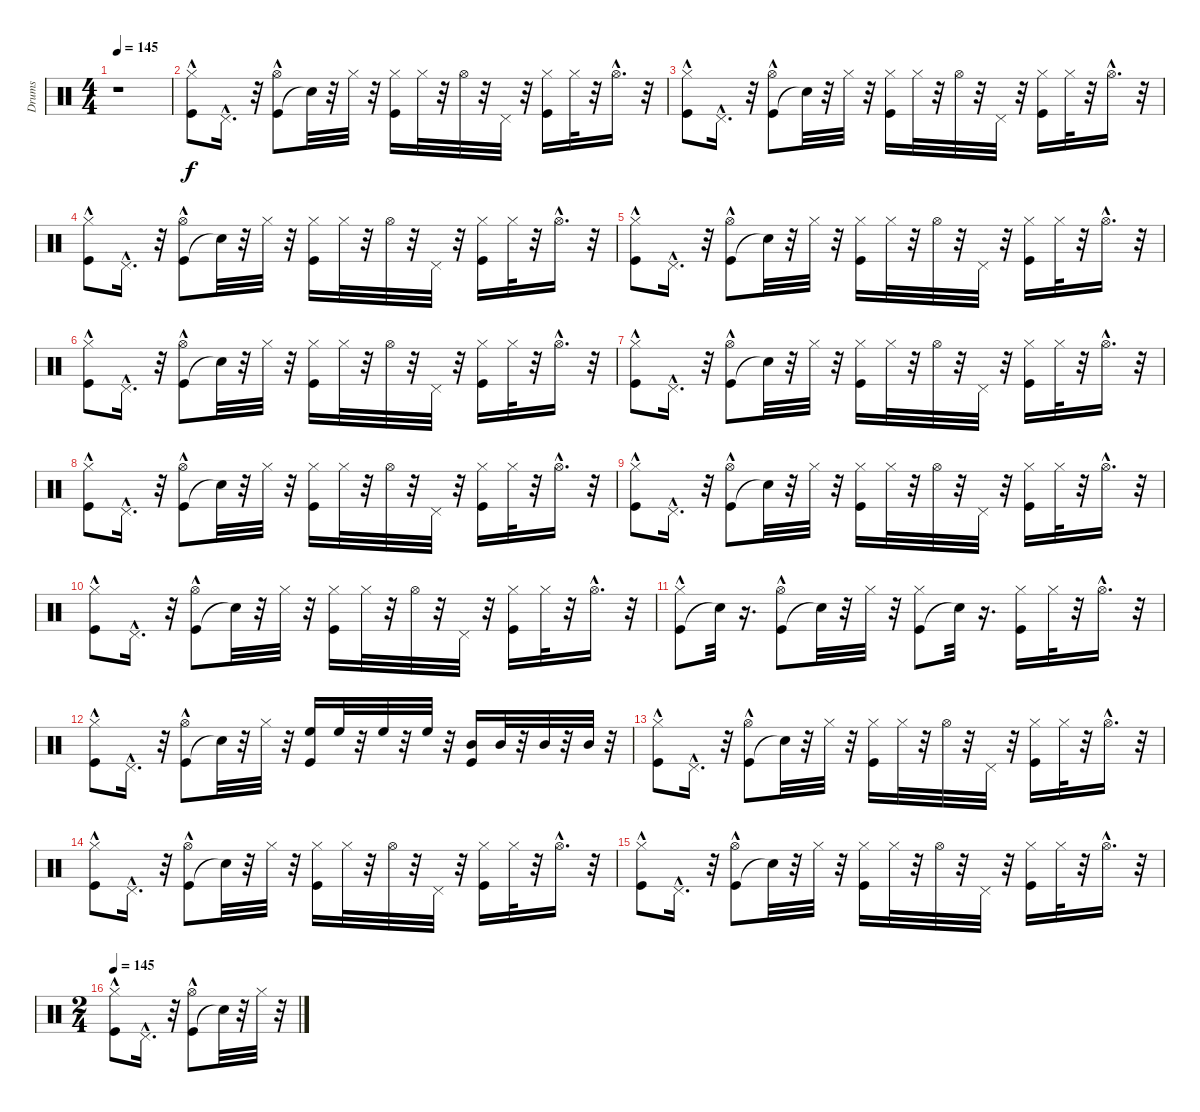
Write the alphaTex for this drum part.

\track ("Drums" "Drums") {instrument percussion}
\staff {score}
\articulation defaults
\ts (4 4)
\tempo 145
\clef neutral
\ks c
r.1{dy f} |
("Kick (hit)" "Hi-Hat (closed)"{hac}).8 "Pedal Hi-Hat (hit)"{hac}.16{d} r.32 ("Kick (hit)" "Hi-Hat (open)"{hac}).8 "Snare (hit)"{t}.32 r.32 "Hi-Hat (closed)".32 r.32 ("Kick (hit)" "Hi-Hat (closed)").16 "Hi-Hat (closed)".32 r.32 "Hi-Hat (open)".32 r.32 "Pedal Hi-Hat (hit)".32 r.32 ("Kick (hit)" "Hi-Hat (closed)").16 "Hi-Hat (closed)".32 r.32 "Hi-Hat (open)"{hac}.16{d} r.32 |
("Kick (hit)" "Hi-Hat (closed)"{hac}).8 "Pedal Hi-Hat (hit)"{hac}.16{d} r.32 ("Kick (hit)" "Hi-Hat (open)"{hac}).8 "Snare (hit)"{t}.32 r.32 "Hi-Hat (closed)".32 r.32 ("Kick (hit)" "Hi-Hat (closed)").16 "Hi-Hat (closed)".32 r.32 "Hi-Hat (open)".32 r.32 "Pedal Hi-Hat (hit)".32 r.32 ("Kick (hit)" "Hi-Hat (closed)").16 "Hi-Hat (closed)".32 r.32 "Hi-Hat (open)"{hac}.16{d} r.32 |
("Kick (hit)" "Hi-Hat (closed)"{hac}).8 "Pedal Hi-Hat (hit)"{hac}.16{d} r.32 ("Kick (hit)" "Hi-Hat (open)"{hac}).8 "Snare (hit)"{t}.32 r.32 "Hi-Hat (closed)".32 r.32 ("Kick (hit)" "Hi-Hat (closed)").16 "Hi-Hat (closed)".32 r.32 "Hi-Hat (open)".32 r.32 "Pedal Hi-Hat (hit)".32 r.32 ("Kick (hit)" "Hi-Hat (closed)").16 "Hi-Hat (closed)".32 r.32 "Hi-Hat (open)"{hac}.16{d} r.32 |
("Kick (hit)" "Hi-Hat (closed)"{hac}).8 "Pedal Hi-Hat (hit)"{hac}.16{d} r.32 ("Kick (hit)" "Hi-Hat (open)"{hac}).8 "Snare (hit)"{t}.32 r.32 "Hi-Hat (closed)".32 r.32 ("Kick (hit)" "Hi-Hat (closed)").16 "Hi-Hat (closed)".32 r.32 "Hi-Hat (open)".32 r.32 "Pedal Hi-Hat (hit)".32 r.32 ("Kick (hit)" "Hi-Hat (closed)").16 "Hi-Hat (closed)".32 r.32 "Hi-Hat (open)"{hac}.16{d} r.32 |
("Kick (hit)" "Hi-Hat (closed)"{hac}).8 "Pedal Hi-Hat (hit)"{hac}.16{d} r.32 ("Kick (hit)" "Hi-Hat (open)"{hac}).8 "Snare (hit)"{t}.32 r.32 "Hi-Hat (closed)".32 r.32 ("Kick (hit)" "Hi-Hat (closed)").16 "Hi-Hat (closed)".32 r.32 "Hi-Hat (open)".32 r.32 "Pedal Hi-Hat (hit)".32 r.32 ("Kick (hit)" "Hi-Hat (closed)").16 "Hi-Hat (closed)".32 r.32 "Hi-Hat (open)"{hac}.16{d} r.32 |
("Kick (hit)" "Hi-Hat (closed)"{hac}).8 "Pedal Hi-Hat (hit)"{hac}.16{d} r.32 ("Kick (hit)" "Hi-Hat (open)"{hac}).8 "Snare (hit)"{t}.32 r.32 "Hi-Hat (closed)".32 r.32 ("Kick (hit)" "Hi-Hat (closed)").16 "Hi-Hat (closed)".32 r.32 "Hi-Hat (open)".32 r.32 "Pedal Hi-Hat (hit)".32 r.32 ("Kick (hit)" "Hi-Hat (closed)").16 "Hi-Hat (closed)".32 r.32 "Hi-Hat (open)"{hac}.16{d} r.32 |
("Kick (hit)" "Hi-Hat (closed)"{hac}).8 "Pedal Hi-Hat (hit)"{hac}.16{d} r.32 ("Kick (hit)" "Hi-Hat (open)"{hac}).8 "Snare (hit)"{t}.32 r.32 "Hi-Hat (closed)".32 r.32 ("Kick (hit)" "Hi-Hat (closed)").16 "Hi-Hat (closed)".32 r.32 "Hi-Hat (open)".32 r.32 "Pedal Hi-Hat (hit)".32 r.32 ("Kick (hit)" "Hi-Hat (closed)").16 "Hi-Hat (closed)".32 r.32 "Hi-Hat (open)"{hac}.16{d} r.32 |
("Kick (hit)" "Hi-Hat (closed)"{hac}).8 "Pedal Hi-Hat (hit)"{hac}.16{d} r.32 ("Kick (hit)" "Hi-Hat (open)"{hac}).8 "Snare (hit)"{t}.32 r.32 "Hi-Hat (closed)".32 r.32 ("Kick (hit)" "Hi-Hat (closed)").16 "Hi-Hat (closed)".32 r.32 "Hi-Hat (open)".32 r.32 "Pedal Hi-Hat (hit)".32 r.32 ("Kick (hit)" "Hi-Hat (closed)").16 "Hi-Hat (closed)".32 r.32 "Hi-Hat (open)"{hac}.16{d} r.32 |
("Kick (hit)" "Hi-Hat (closed)"{hac}).8 "Pedal Hi-Hat (hit)"{hac}.16{d} r.32 ("Kick (hit)" "Hi-Hat (open)"{hac}).8 "Snare (hit)"{t}.32 r.32 "Hi-Hat (closed)".32 r.32 ("Kick (hit)" "Hi-Hat (closed)").16 "Hi-Hat (closed)".32 r.32 "Hi-Hat (open)".32 r.32 "Pedal Hi-Hat (hit)".32 r.32 ("Kick (hit)" "Hi-Hat (closed)").16 "Hi-Hat (closed)".32 r.32 "Hi-Hat (open)"{hac}.16{d} r.32 |
("Kick (hit)" "Hi-Hat (closed)"{hac}).8 "Snare (hit)"{t}.32 r.16{d} ("Kick (hit)" "Hi-Hat (open)"{hac}).8 "Snare (hit)"{t}.32 r.32 "Hi-Hat (closed)".32 r.32 ("Kick (hit)" "Hi-Hat (closed)").8 "Snare (hit)"{t}.32 r.16{d} ("Kick (hit)" "Hi-Hat (closed)").16 "Hi-Hat (closed)".32 r.32 "Hi-Hat (open)"{hac}.16{d} r.32 |
("Kick (hit)" "Hi-Hat (closed)"{hac}).8 "Pedal Hi-Hat (hit)"{hac}.16{d} r.32 ("Kick (hit)" "Hi-Hat (open)"{hac}).8 "Snare (hit)"{t}.32 r.32 "Hi-Hat (closed)".32 r.32 ("High Floor Tom (hit)" "Kick (hit)").16 "High Floor Tom (hit)".32 r.32 "High Floor Tom (hit)".32 r.32 "High Floor Tom (hit)".32 r.32 ("Mid Tom (hit)" "Kick (hit)").16 "Mid Tom (hit)".32 r.32 "Mid Tom (hit)".32 r.32 "Mid Tom (hit)".32 r.32 |
("Kick (hit)" "Hi-Hat (closed)"{hac}).8 "Pedal Hi-Hat (hit)"{hac}.16{d} r.32 ("Kick (hit)" "Hi-Hat (open)"{hac}).8 "Snare (hit)"{t}.32 r.32 "Hi-Hat (closed)".32 r.32 ("Kick (hit)" "Hi-Hat (closed)").16 "Hi-Hat (closed)".32 r.32 "Hi-Hat (open)".32 r.32 "Pedal Hi-Hat (hit)".32 r.32 ("Kick (hit)" "Hi-Hat (closed)").16 "Hi-Hat (closed)".32 r.32 "Hi-Hat (open)"{hac}.16{d} r.32 |
("Kick (hit)" "Hi-Hat (closed)"{hac}).8 "Pedal Hi-Hat (hit)"{hac}.16{d} r.32 ("Kick (hit)" "Hi-Hat (open)"{hac}).8 "Snare (hit)"{t}.32 r.32 "Hi-Hat (closed)".32 r.32 ("Kick (hit)" "Hi-Hat (closed)").16 "Hi-Hat (closed)".32 r.32 "Hi-Hat (open)".32 r.32 "Pedal Hi-Hat (hit)".32 r.32 ("Kick (hit)" "Hi-Hat (closed)").16 "Hi-Hat (closed)".32 r.32 "Hi-Hat (open)"{hac}.16{d} r.32 |
("Kick (hit)" "Hi-Hat (closed)"{hac}).8 "Pedal Hi-Hat (hit)"{hac}.16{d} r.32 ("Kick (hit)" "Hi-Hat (open)"{hac}).8 "Snare (hit)"{t}.32 r.32 "Hi-Hat (closed)".32 r.32 ("Kick (hit)" "Hi-Hat (closed)").16 "Hi-Hat (closed)".32 r.32 "Hi-Hat (open)".32 r.32 "Pedal Hi-Hat (hit)".32 r.32 ("Kick (hit)" "Hi-Hat (closed)").16 "Hi-Hat (closed)".32 r.32 "Hi-Hat (open)"{hac}.16{d} r.32 |
\ts (2 4)
\tempo 145
("Kick (hit)" "Hi-Hat (closed)"{hac}).8 "Pedal Hi-Hat (hit)"{hac}.16{d} r.32 ("Kick (hit)" "Hi-Hat (open)"{hac}).8 "Snare (hit)"{t}.32 r.32 "Hi-Hat (closed)".32 r.32
